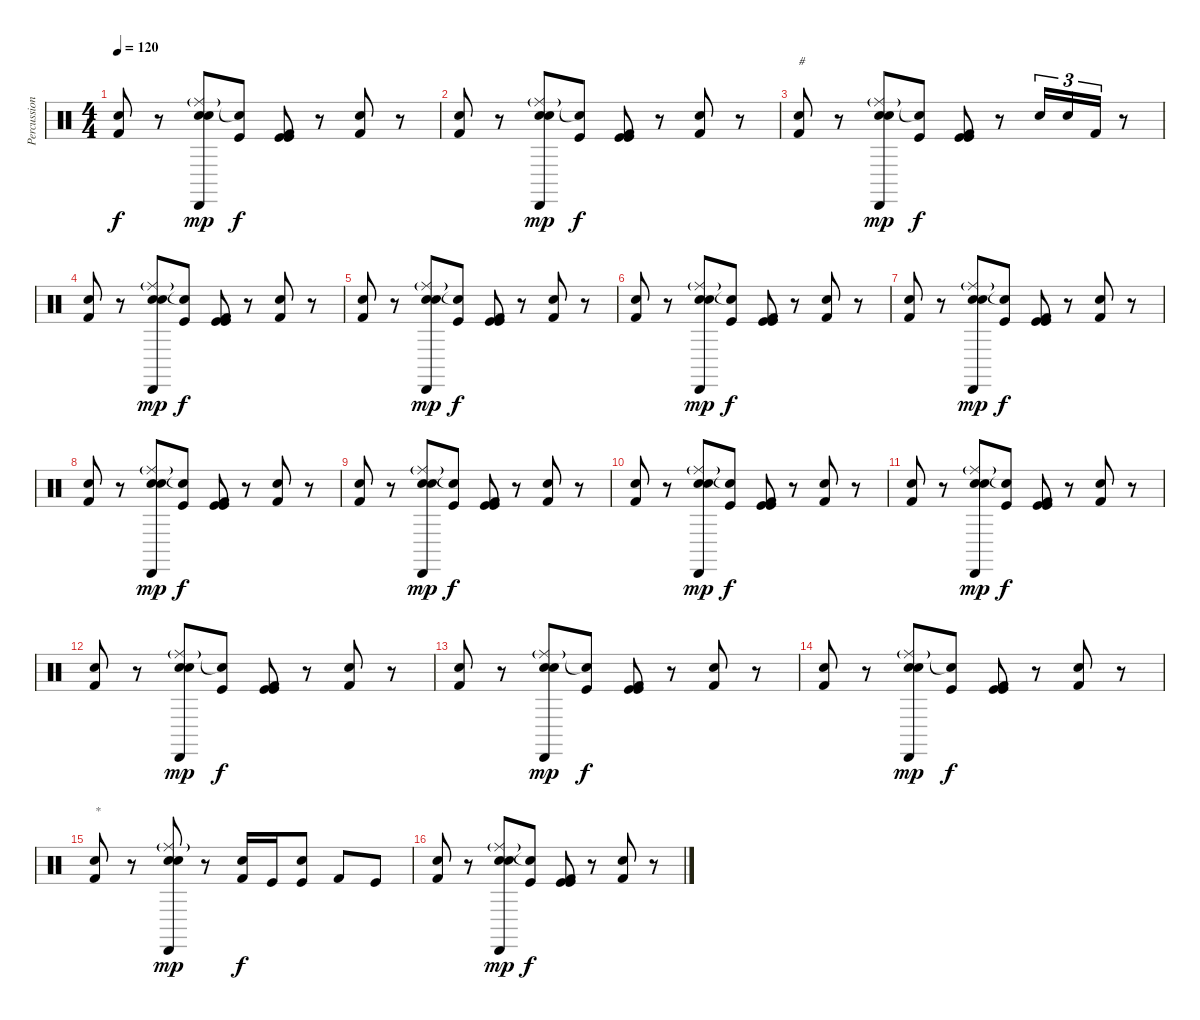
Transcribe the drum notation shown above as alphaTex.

\track ("Percussion" "Percussion") {instrument percussion}
\staff {score}
\articulation defaults
\ts (4 4)
\tempo 120
\clef neutral
\ks c
("Kick (hit) 2" "Snare (hit) 2").8{dy f} r.8 ("Ride (middle)"{g} "Snare (hit) 2" "Cabasa (hit)" "Snare (hit) 2").8{dy mp} ("Snare (hit)"{t} "Kick (hit)").8{dy f} ("Kick (hit)" "Kick (hit)" "Kick (hit) 2").8 r.8 ("Kick (hit) 2" "Snare (hit) 2").8 r.8 |
("Kick (hit) 2" "Snare (hit) 2").8 r.8 ("Ride (middle)"{g} "Snare (hit) 2" "Cabasa (hit)" "Snare (hit) 2").8{dy mp} ("Snare (hit)"{t} "Kick (hit)").8{dy f} ("Kick (hit)" "Kick (hit)" "Kick (hit) 2").8 r.8 ("Kick (hit) 2" "Snare (hit) 2").8 r.8 |
("Kick (hit) 2" "Snare (hit) 2").8{txt "#"} r.8 ("Ride (middle)"{g} "Snare (hit) 2" "Cabasa (hit)" "Snare (hit) 2").8{dy mp} ("Snare (hit)"{t} "Kick (hit)").8{dy f} ("Kick (hit)" "Kick (hit)" "Kick (hit) 2").8 r.8 "Snare (hit) 2".16{tu (3 2)} "Electric Snare (hit)".16{tu (3 2)} "Kick (hit) 2".16{tu (3 2)} r.8 |
("Kick (hit) 2" "Snare (hit) 2").8 r.8 ("Ride (middle)"{g} "Snare (hit) 2" "Cabasa (hit)" "Snare (hit) 2").8{dy mp} ("Snare (hit)"{t} "Kick (hit)").8{dy f} ("Kick (hit)" "Kick (hit)" "Kick (hit) 2").8 r.8 ("Kick (hit) 2" "Snare (hit) 2").8 r.8 |
("Kick (hit) 2" "Snare (hit) 2").8 r.8 ("Ride (middle)"{g} "Snare (hit) 2" "Cabasa (hit)" "Snare (hit) 2").8{dy mp} ("Snare (hit)"{t} "Kick (hit)").8{dy f} ("Kick (hit)" "Kick (hit)" "Kick (hit) 2").8 r.8 ("Kick (hit) 2" "Snare (hit) 2").8 r.8 |
("Kick (hit) 2" "Snare (hit) 2").8 r.8 ("Ride (middle)"{g} "Snare (hit) 2" "Cabasa (hit)" "Snare (hit) 2").8{dy mp} ("Snare (hit)"{t} "Kick (hit)").8{dy f} ("Kick (hit)" "Kick (hit)" "Kick (hit) 2").8 r.8 ("Kick (hit) 2" "Snare (hit) 2").8 r.8 |
("Kick (hit) 2" "Snare (hit) 2").8 r.8 ("Ride (middle)"{g} "Snare (hit) 2" "Cabasa (hit)" "Snare (hit) 2").8{dy mp} ("Snare (hit)"{t} "Kick (hit)").8{dy f} ("Kick (hit)" "Kick (hit)" "Kick (hit) 2").8 r.8 ("Kick (hit) 2" "Snare (hit) 2").8 r.8 |
("Kick (hit) 2" "Snare (hit) 2").8 r.8 ("Ride (middle)"{g} "Snare (hit) 2" "Cabasa (hit)" "Snare (hit) 2").8{dy mp} ("Snare (hit)"{t} "Kick (hit)").8{dy f} ("Kick (hit)" "Kick (hit)" "Kick (hit) 2").8 r.8 ("Kick (hit) 2" "Snare (hit) 2").8 r.8 |
("Kick (hit) 2" "Snare (hit) 2").8 r.8 ("Ride (middle)"{g} "Snare (hit) 2" "Cabasa (hit)" "Snare (hit) 2").8{dy mp} ("Snare (hit)"{t} "Kick (hit)").8{dy f} ("Kick (hit)" "Kick (hit)" "Kick (hit) 2").8 r.8 ("Kick (hit) 2" "Snare (hit) 2").8 r.8 |
("Kick (hit) 2" "Snare (hit) 2").8 r.8 ("Ride (middle)"{g} "Snare (hit) 2" "Cabasa (hit)" "Snare (hit) 2").8{dy mp} ("Snare (hit)"{t} "Kick (hit)").8{dy f} ("Kick (hit)" "Kick (hit)" "Kick (hit) 2").8 r.8 ("Kick (hit) 2" "Snare (hit) 2").8 r.8 |
("Kick (hit) 2" "Snare (hit) 2").8 r.8 ("Ride (middle)"{g} "Snare (hit) 2" "Cabasa (hit)" "Snare (hit) 2").8{dy mp} ("Snare (hit)"{t} "Kick (hit)").8{dy f} ("Kick (hit)" "Kick (hit)" "Kick (hit) 2").8 r.8 ("Kick (hit) 2" "Snare (hit) 2").8 r.8 |
("Kick (hit) 2" "Snare (hit) 2").8 r.8 ("Ride (middle)"{g} "Snare (hit) 2" "Cabasa (hit)" "Snare (hit) 2").8{dy mp} ("Snare (hit)"{t} "Kick (hit)").8{dy f} ("Kick (hit)" "Kick (hit)" "Kick (hit) 2").8 r.8 ("Kick (hit) 2" "Snare (hit) 2").8 r.8 |
("Kick (hit) 2" "Snare (hit) 2").8 r.8 ("Ride (middle)"{g} "Snare (hit) 2" "Cabasa (hit)" "Snare (hit) 2").8{dy mp} ("Snare (hit)"{t} "Kick (hit)").8{dy f} ("Kick (hit)" "Kick (hit)" "Kick (hit) 2").8 r.8 ("Kick (hit) 2" "Snare (hit) 2").8 r.8 |
("Kick (hit) 2" "Snare (hit) 2").8 r.8 ("Ride (middle)"{g} "Snare (hit) 2" "Cabasa (hit)" "Snare (hit) 2").8{dy mp} ("Snare (hit)"{t} "Kick (hit)").8{dy f} ("Kick (hit)" "Kick (hit)" "Kick (hit) 2").8 r.8 ("Kick (hit) 2" "Snare (hit) 2").8 r.8 |
("Kick (hit) 2" "Snare (hit) 2").8{txt "*"} r.8 ("Ride (middle)"{g} "Snare (hit) 2" "Cabasa (hit)" "Snare (hit) 2").8{dy mp} r.8 ("Kick (hit) 2" "Snare (hit) 2").16{dy f} "Kick (hit)".16 ("Kick (hit)" "Snare (hit) 2").8 "Kick (hit) 2".8 "Kick (hit)".8 |
("Kick (hit) 2" "Snare (hit) 2").8 r.8 ("Ride (middle)"{g} "Snare (hit) 2" "Cabasa (hit)" "Snare (hit) 2").8{dy mp} ("Snare (hit)"{t} "Kick (hit)").8{dy f} ("Kick (hit)" "Kick (hit)" "Kick (hit) 2").8 r.8 ("Kick (hit) 2" "Snare (hit) 2").8 r.8
